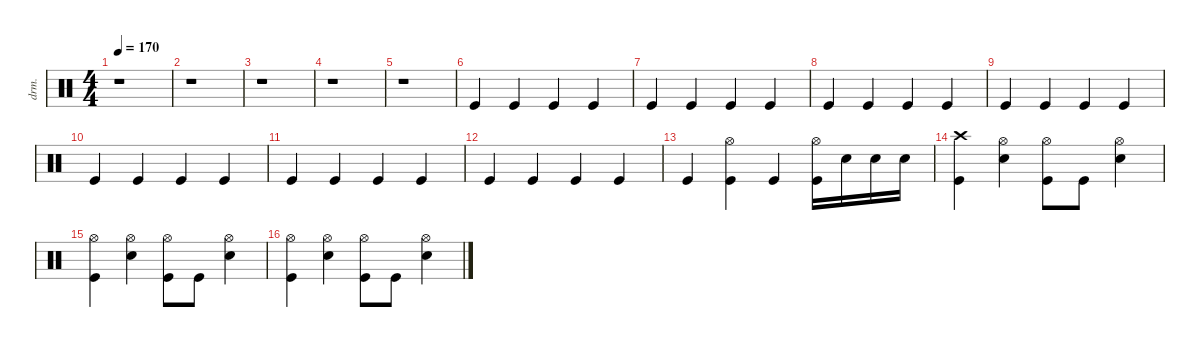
\defaultSystemsLayout 4
\hideDynamics
\bracketExtendMode nobrackets
\otherSystemsTrackNameOrientation horizontal
\track ("Drums" "drm.") {instrument percussion}
\staff {score}
\articulation defaults
\ts (4 4)
\beaming (8 2 2 2 2)
\tempo 170
\clef neutral
\ks c
r.1{dy f beam Down} |
r.1{beam Down} |
r.1{beam Down} |
r.1{beam Down} |
r.1{beam Down} |
"Kick (hit)".4{beam Up} "Kick (hit)".4{beam Up} "Kick (hit)".4{beam Up} "Kick (hit)".4{beam Up} |
"Kick (hit)".4{beam Up} "Kick (hit)".4{beam Up} "Kick (hit)".4{beam Up} "Kick (hit)".4{beam Up} |
"Kick (hit)".4{beam Up} "Kick (hit)".4{beam Up} "Kick (hit)".4{beam Up} "Kick (hit)".4{beam Up} |
"Kick (hit)".4{beam Up} "Kick (hit)".4{beam Up} "Kick (hit)".4{beam Up} "Kick (hit)".4{beam Up} |
"Kick (hit)".4{beam Up} "Kick (hit)".4{beam Up} "Kick (hit)".4{beam Up} "Kick (hit)".4{beam Up} |
"Kick (hit)".4{beam Up} "Kick (hit)".4{beam Up} "Kick (hit)".4{beam Up} "Kick (hit)".4{beam Up} |
"Kick (hit)".4{beam Up} "Kick (hit)".4{beam Up} "Kick (hit)".4{beam Up} "Kick (hit)".4{beam Up} |
"Kick (hit)".4{beam Up} ("Hi-Hat (open)" "Kick (hit)").4{beam Down} "Kick (hit)".4{beam Up} ("Hi-Hat (open)" "Kick (hit)").16{beam Down} "Snare (hit) 2".16{beam Down} "Snare (hit) 2".16{beam Down} "Snare (hit) 2".16{beam Down} |
("Crash high (hit)" "Kick (hit)").4{beam Down} ("Hi-Hat (open)" "Snare (hit) 2").4{beam Down} ("Hi-Hat (open)" "Kick (hit)").8{beam Down} "Kick (hit)".8{beam Down} ("Hi-Hat (open)" "Snare (hit) 2").4{beam Down} |
("Hi-Hat (open)" "Kick (hit)").4{beam Down} ("Hi-Hat (open)" "Snare (hit) 2").4{beam Down} ("Hi-Hat (open)" "Kick (hit)").8{beam Down} "Kick (hit)".8{beam Down} ("Hi-Hat (open)" "Snare (hit) 2").4{beam Down} |
("Hi-Hat (open)" "Kick (hit)").4{beam Down} ("Hi-Hat (open)" "Snare (hit) 2").4{beam Down} ("Hi-Hat (open)" "Kick (hit)").8{beam Down} "Kick (hit)".8{beam Down} ("Hi-Hat (open)" "Snare (hit) 2").4{beam Down}
